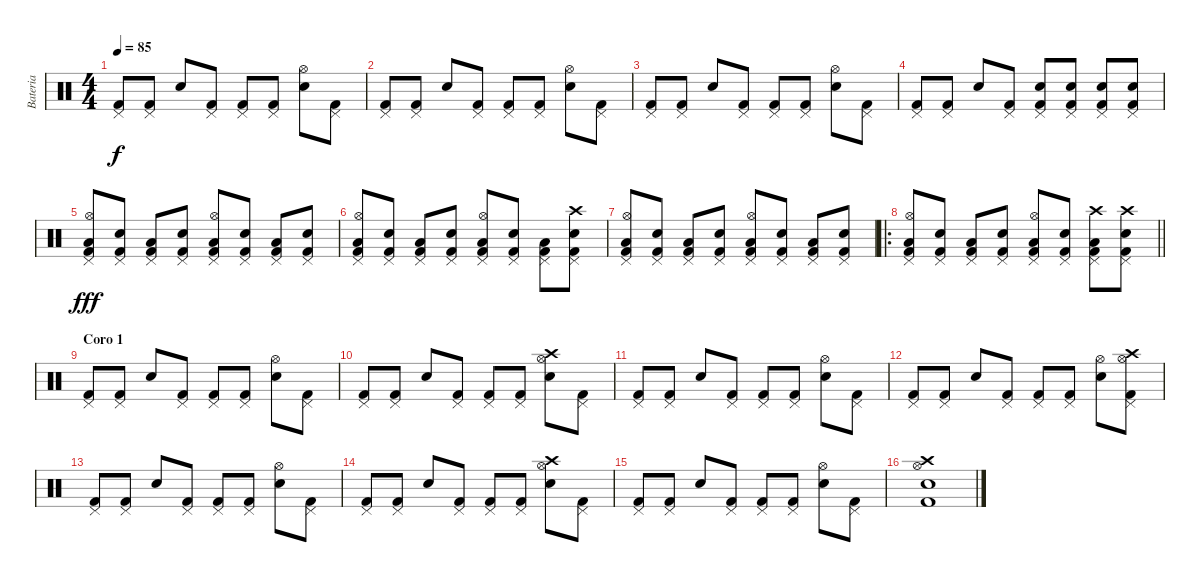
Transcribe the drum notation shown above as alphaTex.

\track ("Bateria" "Bateria") {instrument percussion}
\staff {score}
\articulation defaults
\ts (4 4)
\tempo 85
\clef neutral
\ks c
("Pedal Hi-Hat (hit)" "Kick (hit) 2").8{dy f} ("Pedal Hi-Hat (hit)" "Kick (hit) 2").8 "Snare (hit) 2".8 ("Pedal Hi-Hat (hit)" "Kick (hit) 2").8 ("Pedal Hi-Hat (hit)" "Kick (hit) 2").8 ("Pedal Hi-Hat (hit)" "Kick (hit) 2").8 ("Hi-Hat (open)" "Snare (hit) 2").8 ("Pedal Hi-Hat (hit)" "Kick (hit) 2").8 |
("Pedal Hi-Hat (hit)" "Kick (hit) 2").8 ("Pedal Hi-Hat (hit)" "Kick (hit) 2").8 "Snare (hit) 2".8 ("Pedal Hi-Hat (hit)" "Kick (hit) 2").8 ("Pedal Hi-Hat (hit)" "Kick (hit) 2").8 ("Pedal Hi-Hat (hit)" "Kick (hit) 2").8 ("Hi-Hat (open)" "Snare (hit) 2").8 ("Pedal Hi-Hat (hit)" "Kick (hit) 2").8 |
("Pedal Hi-Hat (hit)" "Kick (hit) 2").8 ("Pedal Hi-Hat (hit)" "Kick (hit) 2").8 "Snare (hit) 2".8 ("Pedal Hi-Hat (hit)" "Kick (hit) 2").8 ("Pedal Hi-Hat (hit)" "Kick (hit) 2").8 ("Pedal Hi-Hat (hit)" "Kick (hit) 2").8 ("Hi-Hat (open)" "Snare (hit) 2").8 ("Pedal Hi-Hat (hit)" "Kick (hit) 2").8 |
("Pedal Hi-Hat (hit)" "Kick (hit) 2").8 ("Pedal Hi-Hat (hit)" "Kick (hit) 2").8 "Snare (hit) 2".8 ("Pedal Hi-Hat (hit)" "Kick (hit) 2").8 ("Snare (hit) 2" "Pedal Hi-Hat (hit)" "Kick (hit) 2").8 ("Snare (hit) 2" "Pedal Hi-Hat (hit)" "Kick (hit) 2").8 ("Snare (hit) 2" "Pedal Hi-Hat (hit)" "Kick (hit) 2").8 ("Snare (hit) 2" "Pedal Hi-Hat (hit)" "Kick (hit) 2").8 |
("Hi-Hat (open)" "Low Tom (hit)" "Pedal Hi-Hat (hit)" "Kick (hit) 2").8{dy fff} ("Snare (hit) 2" "Pedal Hi-Hat (hit)" "Kick (hit) 2").8 ("Low Tom (hit)" "Pedal Hi-Hat (hit)" "Kick (hit) 2").8 ("Snare (hit) 2" "Pedal Hi-Hat (hit)" "Kick (hit) 2").8 ("Hi-Hat (open)" "Low Tom (hit)" "Pedal Hi-Hat (hit)" "Kick (hit) 2").8 ("Snare (hit) 2" "Pedal Hi-Hat (hit)" "Kick (hit) 2").8 ("Low Tom (hit)" "Pedal Hi-Hat (hit)" "Kick (hit) 2").8 ("Snare (hit) 2" "Pedal Hi-Hat (hit)" "Kick (hit) 2").8 |
("Hi-Hat (open)" "Low Tom (hit)" "Pedal Hi-Hat (hit)" "Kick (hit) 2").8 ("Snare (hit) 2" "Pedal Hi-Hat (hit)" "Kick (hit) 2").8 ("Low Tom (hit)" "Pedal Hi-Hat (hit)" "Kick (hit) 2").8 ("Snare (hit) 2" "Pedal Hi-Hat (hit)" "Kick (hit) 2").8 ("Hi-Hat (open)" "Low Tom (hit)" "Pedal Hi-Hat (hit)" "Kick (hit) 2").8 ("Snare (hit) 2" "Pedal Hi-Hat (hit)" "Kick (hit) 2").8 ("Low Tom (hit)" "Pedal Hi-Hat (hit)" "Kick (hit) 2").8 ("Crash high (hit)" "Snare (hit) 2" "Pedal Hi-Hat (hit)" "Kick (hit) 2").8 |
("Hi-Hat (open)" "Low Tom (hit)" "Pedal Hi-Hat (hit)" "Kick (hit) 2").8 ("Snare (hit) 2" "Pedal Hi-Hat (hit)" "Kick (hit) 2").8 ("Low Tom (hit)" "Pedal Hi-Hat (hit)" "Kick (hit) 2").8 ("Snare (hit) 2" "Pedal Hi-Hat (hit)" "Kick (hit) 2").8 ("Hi-Hat (open)" "Low Tom (hit)" "Pedal Hi-Hat (hit)" "Kick (hit) 2").8 ("Snare (hit) 2" "Pedal Hi-Hat (hit)" "Kick (hit) 2").8 ("Low Tom (hit)" "Pedal Hi-Hat (hit)" "Kick (hit) 2").8 ("Snare (hit) 2" "Pedal Hi-Hat (hit)" "Kick (hit) 2").8 |
\ro
\barLineRight lightlight
("Hi-Hat (open)" "Low Tom (hit)" "Pedal Hi-Hat (hit)" "Kick (hit) 2").8 ("Snare (hit) 2" "Pedal Hi-Hat (hit)" "Kick (hit) 2").8 ("Low Tom (hit)" "Pedal Hi-Hat (hit)" "Kick (hit) 2").8 ("Snare (hit) 2" "Pedal Hi-Hat (hit)" "Kick (hit) 2").8 ("Hi-Hat (open)" "Low Tom (hit)" "Pedal Hi-Hat (hit)" "Kick (hit) 2").8 ("Snare (hit) 2" "Pedal Hi-Hat (hit)" "Kick (hit) 2").8 ("Crash high (hit)" "Low Tom (hit)" "Pedal Hi-Hat (hit)" "Kick (hit) 2").8 ("Crash high (hit)" "Snare (hit) 2" "Pedal Hi-Hat (hit)" "Kick (hit) 2").8 |
\section ("" "Coro 1")
("Pedal Hi-Hat (hit)" "Kick (hit) 2").8 ("Pedal Hi-Hat (hit)" "Kick (hit) 2").8 "Snare (hit) 2".8 ("Pedal Hi-Hat (hit)" "Kick (hit) 2").8 ("Pedal Hi-Hat (hit)" "Kick (hit) 2").8 ("Pedal Hi-Hat (hit)" "Kick (hit) 2").8 ("Hi-Hat (open)" "Snare (hit) 2").8 ("Pedal Hi-Hat (hit)" "Kick (hit) 2").8 |
("Pedal Hi-Hat (hit)" "Kick (hit) 2").8 ("Pedal Hi-Hat (hit)" "Kick (hit) 2").8 "Snare (hit) 2".8 ("Pedal Hi-Hat (hit)" "Kick (hit) 2").8 ("Pedal Hi-Hat (hit)" "Kick (hit) 2").8 ("Pedal Hi-Hat (hit)" "Kick (hit) 2").8 ("Crash high (hit)" "Hi-Hat (open)" "Snare (hit) 2").8 ("Pedal Hi-Hat (hit)" "Kick (hit) 2").8 |
("Pedal Hi-Hat (hit)" "Kick (hit) 2").8 ("Pedal Hi-Hat (hit)" "Kick (hit) 2").8 "Snare (hit) 2".8 ("Pedal Hi-Hat (hit)" "Kick (hit) 2").8 ("Pedal Hi-Hat (hit)" "Kick (hit) 2").8 ("Pedal Hi-Hat (hit)" "Kick (hit) 2").8 ("Hi-Hat (open)" "Snare (hit) 2").8 ("Pedal Hi-Hat (hit)" "Kick (hit) 2").8 |
("Pedal Hi-Hat (hit)" "Kick (hit) 2").8 ("Pedal Hi-Hat (hit)" "Kick (hit) 2").8 "Snare (hit) 2".8 ("Pedal Hi-Hat (hit)" "Kick (hit) 2").8 ("Pedal Hi-Hat (hit)" "Kick (hit) 2").8 ("Pedal Hi-Hat (hit)" "Kick (hit) 2").8 ("Hi-Hat (open)" "Snare (hit) 2").8 ("Crash high (hit)" "Hi-Hat (open)" "Pedal Hi-Hat (hit)" "Kick (hit) 2").8 |
("Pedal Hi-Hat (hit)" "Kick (hit) 2").8 ("Pedal Hi-Hat (hit)" "Kick (hit) 2").8 "Snare (hit) 2".8 ("Pedal Hi-Hat (hit)" "Kick (hit) 2").8 ("Pedal Hi-Hat (hit)" "Kick (hit) 2").8 ("Pedal Hi-Hat (hit)" "Kick (hit) 2").8 ("Hi-Hat (open)" "Snare (hit) 2").8 ("Pedal Hi-Hat (hit)" "Kick (hit) 2").8 |
("Pedal Hi-Hat (hit)" "Kick (hit) 2").8 ("Pedal Hi-Hat (hit)" "Kick (hit) 2").8 "Snare (hit) 2".8 ("Pedal Hi-Hat (hit)" "Kick (hit) 2").8 ("Pedal Hi-Hat (hit)" "Kick (hit) 2").8 ("Pedal Hi-Hat (hit)" "Kick (hit) 2").8 ("Crash high (hit)" "Hi-Hat (open)" "Snare (hit) 2").8 ("Pedal Hi-Hat (hit)" "Kick (hit) 2").8 |
("Pedal Hi-Hat (hit)" "Kick (hit) 2").8 ("Pedal Hi-Hat (hit)" "Kick (hit) 2").8 "Snare (hit) 2".8 ("Pedal Hi-Hat (hit)" "Kick (hit) 2").8 ("Pedal Hi-Hat (hit)" "Kick (hit) 2").8 ("Pedal Hi-Hat (hit)" "Kick (hit) 2").8 ("Hi-Hat (open)" "Snare (hit) 2").8 ("Pedal Hi-Hat (hit)" "Kick (hit) 2").8 |
("Crash high (hit)" "Hi-Hat (open)" "Snare (hit) 2" "Kick (hit) 2").1
